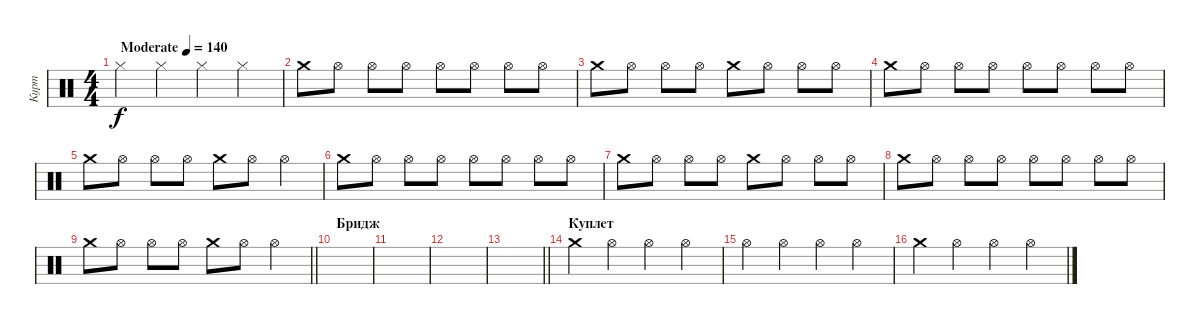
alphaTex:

\track ("Курт" "Курт") {instrument percussion}
\staff {score}
\articulation defaults
\ts (4 4)
\tempo (140 "Moderate")
\clef neutral
\ks c "Hi-Hat (closed)".4{dy f} "Hi-Hat (closed)".4 "Hi-Hat (closed)".4 "Hi-Hat (closed)".4
|
"Crash medium (hit)".8 "Hi-Hat (open)".8 "Hi-Hat (open)".8 "Hi-Hat (open)".8 "Hi-Hat (open)".8 "Hi-Hat (open)".8 "Hi-Hat (open)".8 "Hi-Hat (open)".8 |
"Crash medium (hit)".8 "Hi-Hat (open)".8 "Hi-Hat (open)".8 "Hi-Hat (open)".8 "Crash medium (hit)".8 "Hi-Hat (open)".8 "Hi-Hat (open)".8 "Hi-Hat (open)".8 |
"Crash medium (hit)".8 "Hi-Hat (open)".8 "Hi-Hat (open)".8 "Hi-Hat (open)".8 "Hi-Hat (open)".8 "Hi-Hat (open)".8 "Hi-Hat (open)".8 "Hi-Hat (open)".8 |
"Crash medium (hit)".8 "Hi-Hat (open)".8 "Hi-Hat (open)".8 "Hi-Hat (open)".8 "Crash medium (hit)".8 "Hi-Hat (open)".8 "Hi-Hat (open)".4 |
"Crash medium (hit)".8 "Hi-Hat (open)".8 "Hi-Hat (open)".8 "Hi-Hat (open)".8 "Hi-Hat (open)".8 "Hi-Hat (open)".8 "Hi-Hat (open)".8 "Hi-Hat (open)".8 |
"Crash medium (hit)".8 "Hi-Hat (open)".8 "Hi-Hat (open)".8 "Hi-Hat (open)".8 "Crash medium (hit)".8 "Hi-Hat (open)".8 "Hi-Hat (open)".8 "Hi-Hat (open)".8 |
"Crash medium (hit)".8 "Hi-Hat (open)".8 "Hi-Hat (open)".8 "Hi-Hat (open)".8 "Hi-Hat (open)".8 "Hi-Hat (open)".8 "Hi-Hat (open)".8 "Hi-Hat (open)".8 |
\barLineRight lightlight "Crash medium (hit)".8 "Hi-Hat (open)".8 "Hi-Hat (open)".8 "Hi-Hat (open)".8 "Crash medium (hit)".8 "Hi-Hat (open)".8 "Hi-Hat (open)".4
|
\section ("" "Бридж")
|
|
|
\barLineRight lightlight
|
\section ("" "Куплет")
"Crash medium (hit)".4 "Hi-Hat (open)".4 "Hi-Hat (open)".4 "Hi-Hat (open)".4 |
"Hi-Hat (open)".4 "Hi-Hat (open)".4 "Hi-Hat (open)".4 "Hi-Hat (open)".4 |
"Crash medium (hit)".4 "Hi-Hat (open)".4 "Hi-Hat (open)".4 "Hi-Hat (open)".4
